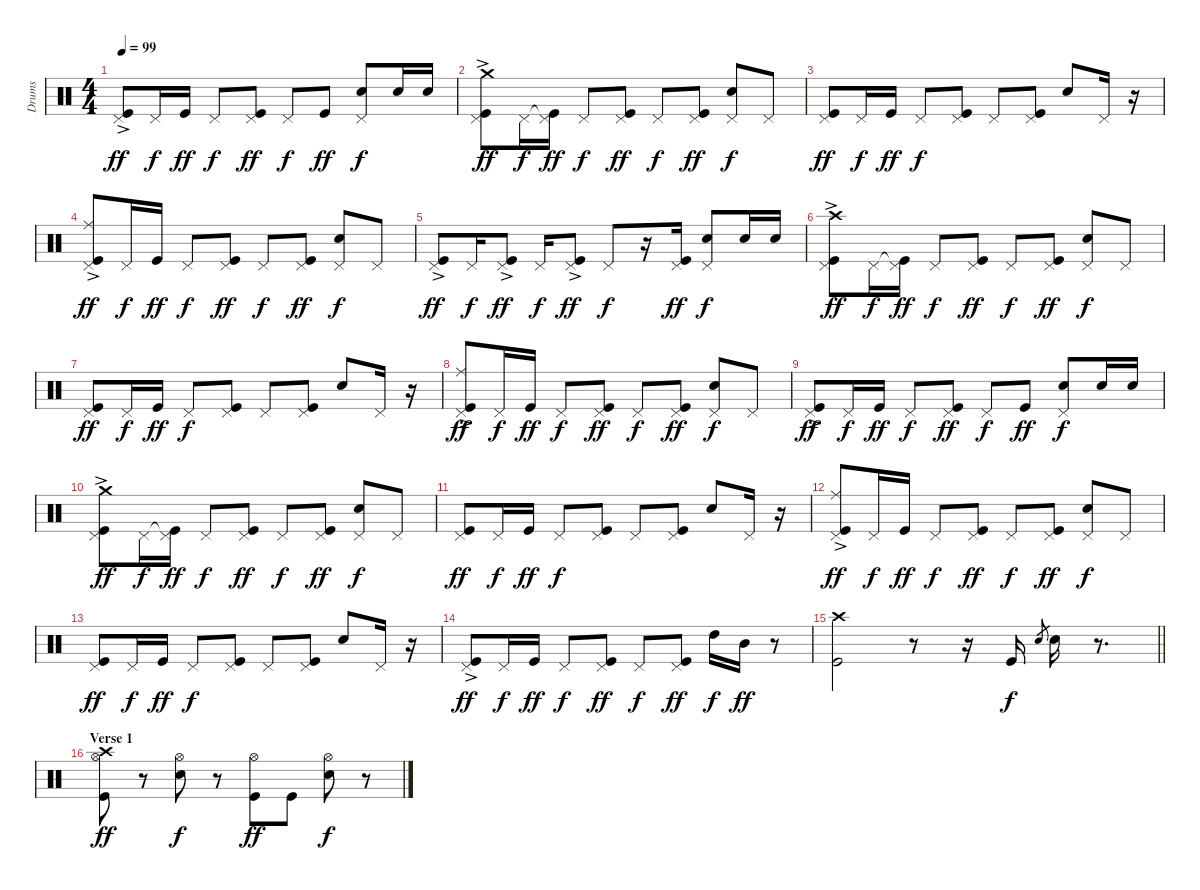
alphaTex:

\track ("Drums" "Drums") {instrument percussion}
\staff {score}
\articulation defaults
\ts (4 4)
\tempo 99
\clef neutral
\ks c
("Pedal Hi-Hat (hit)"{ac} "Kick (hit)").8{dy ff} "Pedal Hi-Hat (hit)".16{dy f} "Kick (hit)".16{dy ff} "Pedal Hi-Hat (hit)".8{dy f} ("Pedal Hi-Hat (hit)" "Kick (hit)").8{dy ff} "Pedal Hi-Hat (hit)".8{dy f} "Kick (hit)".8{dy ff} ("Pedal Hi-Hat (hit)" "Electric Snare (hit)").8{dy f} "Electric Snare (hit)".16 "Electric Snare (hit)".16 |
("Crash medium (hit)" "Pedal Hi-Hat (hit)"{ac} "Kick (hit)").8{dy ff} "Pedal Hi-Hat (hit)".16{dy f} ("Pedal Hi-Hat (hit)"{t} "Kick (hit)").16{dy ff} "Pedal Hi-Hat (hit)".8{dy f} ("Pedal Hi-Hat (hit)" "Kick (hit)").8{dy ff} "Pedal Hi-Hat (hit)".8{dy f} ("Pedal Hi-Hat (hit)" "Kick (hit)").8{dy ff} ("Pedal Hi-Hat (hit)" "Electric Snare (hit)").8{dy f} "Pedal Hi-Hat (hit)".8 |
("Pedal Hi-Hat (hit)" "Kick (hit)").8{dy ff} "Pedal Hi-Hat (hit)".16{dy f} "Kick (hit)".16{dy ff} "Pedal Hi-Hat (hit)".8{dy f} ("Pedal Hi-Hat (hit)" "Kick (hit)").8 "Pedal Hi-Hat (hit)".8 ("Pedal Hi-Hat (hit)" "Kick (hit)").8 "Electric Snare (hit)".8 "Pedal Hi-Hat (hit)".16 r.16 |
("Ride (middle)" "Pedal Hi-Hat (hit)"{ac} "Kick (hit)").8{dy ff} "Pedal Hi-Hat (hit)".16{dy f} "Kick (hit)".16{dy ff} "Pedal Hi-Hat (hit)".8{dy f} ("Pedal Hi-Hat (hit)" "Kick (hit)").8{dy ff} "Pedal Hi-Hat (hit)".8{dy f} ("Pedal Hi-Hat (hit)" "Kick (hit)").8{dy ff} ("Pedal Hi-Hat (hit)" "Electric Snare (hit)").8{dy f} "Pedal Hi-Hat (hit)".8 |
("Pedal Hi-Hat (hit)"{ac} "Kick (hit)").8{dy ff} "Pedal Hi-Hat (hit)".16{dy f} ("Pedal Hi-Hat (hit)"{ac} "Kick (hit)").8{dy ff} "Pedal Hi-Hat (hit)".16{dy f} ("Pedal Hi-Hat (hit)"{ac} "Kick (hit)").8{dy ff} "Pedal Hi-Hat (hit)".8{dy f} r.16 ("Pedal Hi-Hat (hit)" "Kick (hit)").16{dy ff} ("Pedal Hi-Hat (hit)" "Electric Snare (hit)").8{dy f} "Electric Snare (hit)".16 "Electric Snare (hit)".16 |
("Crash high (hit)" "Pedal Hi-Hat (hit)"{ac} "Kick (hit)").8{dy ff} "Pedal Hi-Hat (hit)".16{dy f} ("Pedal Hi-Hat (hit)"{t} "Kick (hit)").16{dy ff} "Pedal Hi-Hat (hit)".8{dy f} ("Pedal Hi-Hat (hit)" "Kick (hit)").8{dy ff} "Pedal Hi-Hat (hit)".8{dy f} ("Pedal Hi-Hat (hit)" "Kick (hit)").8{dy ff} ("Pedal Hi-Hat (hit)" "Electric Snare (hit)").8{dy f} "Pedal Hi-Hat (hit)".8 |
("Pedal Hi-Hat (hit)" "Kick (hit)").8{dy ff} "Pedal Hi-Hat (hit)".16{dy f} "Kick (hit)".16{dy ff} "Pedal Hi-Hat (hit)".8{dy f} ("Pedal Hi-Hat (hit)" "Kick (hit)").8 "Pedal Hi-Hat (hit)".8 ("Pedal Hi-Hat (hit)" "Kick (hit)").8 "Electric Snare (hit)".8 "Pedal Hi-Hat (hit)".16 r.16 |
("Ride (middle)" "Pedal Hi-Hat (hit)"{ac} "Kick (hit)").8{dy ff} "Pedal Hi-Hat (hit)".16{dy f} "Kick (hit)".16{dy ff} "Pedal Hi-Hat (hit)".8{dy f} ("Pedal Hi-Hat (hit)" "Kick (hit)").8{dy ff} "Pedal Hi-Hat (hit)".8{dy f} ("Pedal Hi-Hat (hit)" "Kick (hit)").8{dy ff} ("Pedal Hi-Hat (hit)" "Electric Snare (hit)").8{dy f} "Pedal Hi-Hat (hit)".8 |
("Pedal Hi-Hat (hit)"{ac} "Kick (hit)").8{dy ff} "Pedal Hi-Hat (hit)".16{dy f} "Kick (hit)".16{dy ff} "Pedal Hi-Hat (hit)".8{dy f} ("Pedal Hi-Hat (hit)" "Kick (hit)").8{dy ff} "Pedal Hi-Hat (hit)".8{dy f} "Kick (hit)".8{dy ff} ("Pedal Hi-Hat (hit)" "Electric Snare (hit)").8{dy f} "Electric Snare (hit)".16 "Electric Snare (hit)".16 |
("Crash medium (hit)" "Pedal Hi-Hat (hit)"{ac} "Kick (hit)").8{dy ff} "Pedal Hi-Hat (hit)".16{dy f} ("Pedal Hi-Hat (hit)"{t} "Kick (hit)").16{dy ff} "Pedal Hi-Hat (hit)".8{dy f} ("Pedal Hi-Hat (hit)" "Kick (hit)").8{dy ff} "Pedal Hi-Hat (hit)".8{dy f} ("Pedal Hi-Hat (hit)" "Kick (hit)").8{dy ff} ("Pedal Hi-Hat (hit)" "Electric Snare (hit)").8{dy f} "Pedal Hi-Hat (hit)".8 |
("Pedal Hi-Hat (hit)" "Kick (hit)").8{dy ff} "Pedal Hi-Hat (hit)".16{dy f} "Kick (hit)".16{dy ff} "Pedal Hi-Hat (hit)".8{dy f} ("Pedal Hi-Hat (hit)" "Kick (hit)").8 "Pedal Hi-Hat (hit)".8 ("Pedal Hi-Hat (hit)" "Kick (hit)").8 "Electric Snare (hit)".8 "Pedal Hi-Hat (hit)".16 r.16 |
("Ride (middle)" "Pedal Hi-Hat (hit)"{ac} "Kick (hit)").8{dy ff} "Pedal Hi-Hat (hit)".16{dy f} "Kick (hit)".16{dy ff} "Pedal Hi-Hat (hit)".8{dy f} ("Pedal Hi-Hat (hit)" "Kick (hit)").8{dy ff} "Pedal Hi-Hat (hit)".8{dy f} ("Pedal Hi-Hat (hit)" "Kick (hit)").8{dy ff} ("Pedal Hi-Hat (hit)" "Electric Snare (hit)").8{dy f} "Pedal Hi-Hat (hit)".8 |
("Pedal Hi-Hat (hit)" "Kick (hit)").8{dy ff} "Pedal Hi-Hat (hit)".16{dy f} "Kick (hit)".16{dy ff} "Pedal Hi-Hat (hit)".8{dy f} ("Pedal Hi-Hat (hit)" "Kick (hit)").8 "Pedal Hi-Hat (hit)".8 ("Pedal Hi-Hat (hit)" "Kick (hit)").8 "Electric Snare (hit)".8 "Pedal Hi-Hat (hit)".16 r.16 |
("Pedal Hi-Hat (hit)"{ac} "Kick (hit)").8{dy ff} "Pedal Hi-Hat (hit)".16{dy f} "Kick (hit)".16{dy ff} "Pedal Hi-Hat (hit)".8{dy f} ("Pedal Hi-Hat (hit)" "Kick (hit)").8{dy ff} "Pedal Hi-Hat (hit)".8{dy f} ("Pedal Hi-Hat (hit)" "Kick (hit)").8{dy ff} "High Tom (hit)".16{dy f} "Mid Tom (hit)".16{dy ff} r.8 |
\barLineRight lightlight
("Crash high (hit)" "Kick (hit)").2 r.8 r.16 "Kick (hit)".16{dy f} "Electric Snare (hit)".8{gr} "Electric Snare (hit)".16 r.8{d} |
\section ("" "Verse 1")
("Crash high (hit)" "Hi-Hat (open)" "Kick (hit)").8{dy ff} r.8 ("Hi-Hat (open)" "Electric Snare (hit)").8{dy f} r.8 ("Hi-Hat (open)" "Kick (hit)").8{dy ff} "Kick (hit)".8 ("Hi-Hat (open)" "Electric Snare (hit)").8{dy f} r.8
